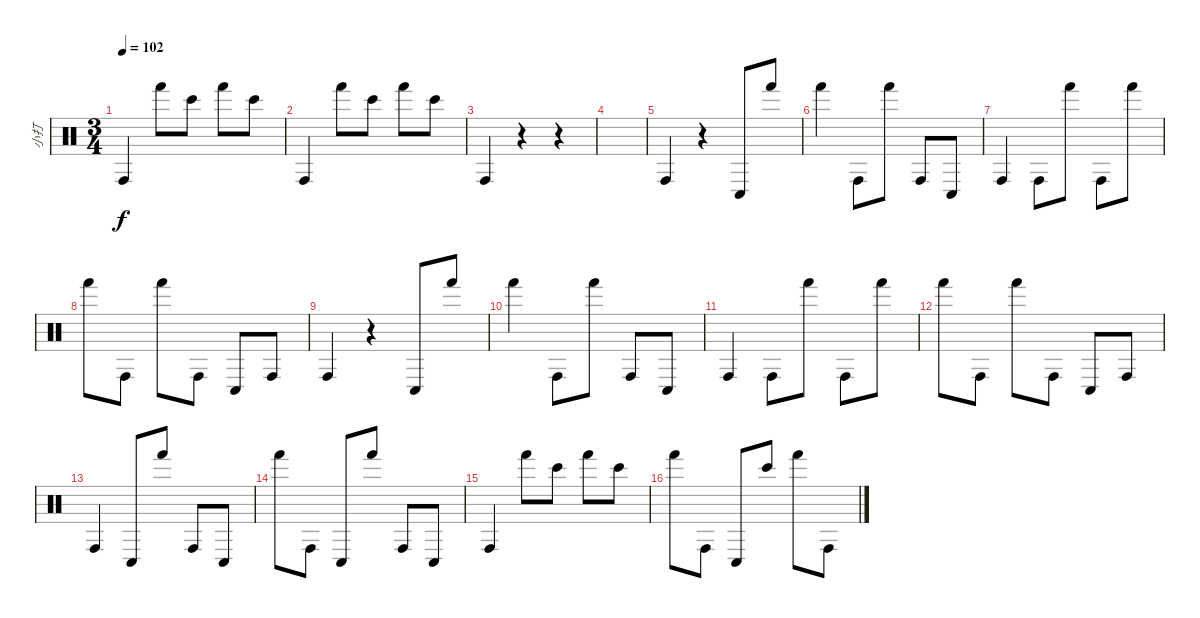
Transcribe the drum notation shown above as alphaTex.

\track ("小打" "小打") {instrument percussion}
\staff {score}
\articulation defaults
\ts (3 4)
\tempo 102
\clef neutral
\ks c "Conga high (hit)".4{dy f} "Hand (hit)".8 "Bongo High (hit)".8 "Hand (hit)".8 "Bongo High (hit)".8
|
"Conga high (hit)".4 "Hand (hit)".8 "Bongo High (hit)".8 "Hand (hit)".8 "Bongo High (hit)".8 |
"Conga high (hit)".4 r.4 r.4 |
|
"Conga high (hit)".4 r.4 "Conga low (hit)".8 "Hand (hit)".8 |
"Hand (hit)".4 "Conga high (hit)".8 "Hand (hit)".8 "Conga high (hit)".8 "Conga low (hit)".8 |
"Conga high (hit)".4 "Conga high (hit)".8 "Hand (hit)".8 "Conga high (hit)".8 "Hand (hit)".8 |
"Hand (hit)".8 "Conga high (hit)".8 "Hand (hit)".8 "Conga high (hit)".8 "Conga low (hit)".8 "Conga high (hit)".8 |
"Conga high (hit)".4 r.4 "Conga low (hit)".8 "Hand (hit)".8 |
"Hand (hit)".4 "Conga high (hit)".8 "Hand (hit)".8 "Conga high (hit)".8 "Conga low (hit)".8 |
"Conga high (hit)".4 "Conga high (hit)".8 "Hand (hit)".8 "Conga high (hit)".8 "Hand (hit)".8 |
"Hand (hit)".8 "Conga high (hit)".8 "Hand (hit)".8 "Conga high (hit)".8 "Conga low (hit)".8 "Conga high (hit)".8 |
"Conga high (hit)".4 "Conga low (hit)".8 "Hand (hit)".8 "Conga high (hit)".8 "Conga low (hit)".8 |
"Hand (hit)".8 "Conga high (hit)".8 "Conga low (hit)".8 "Hand (hit)".8 "Conga high (hit)".8 "Conga low (hit)".8 |
"Conga high (hit)".4 "Hand (hit)".8 "Bongo High (hit)".8 "Hand (hit)".8 "Bongo High (hit)".8 |
"Hand (hit)".8 "Conga high (hit)".8 "Conga low (hit)".8 "Bongo High (hit)".8 "Hand (hit)".8 "Conga high (hit)".8
